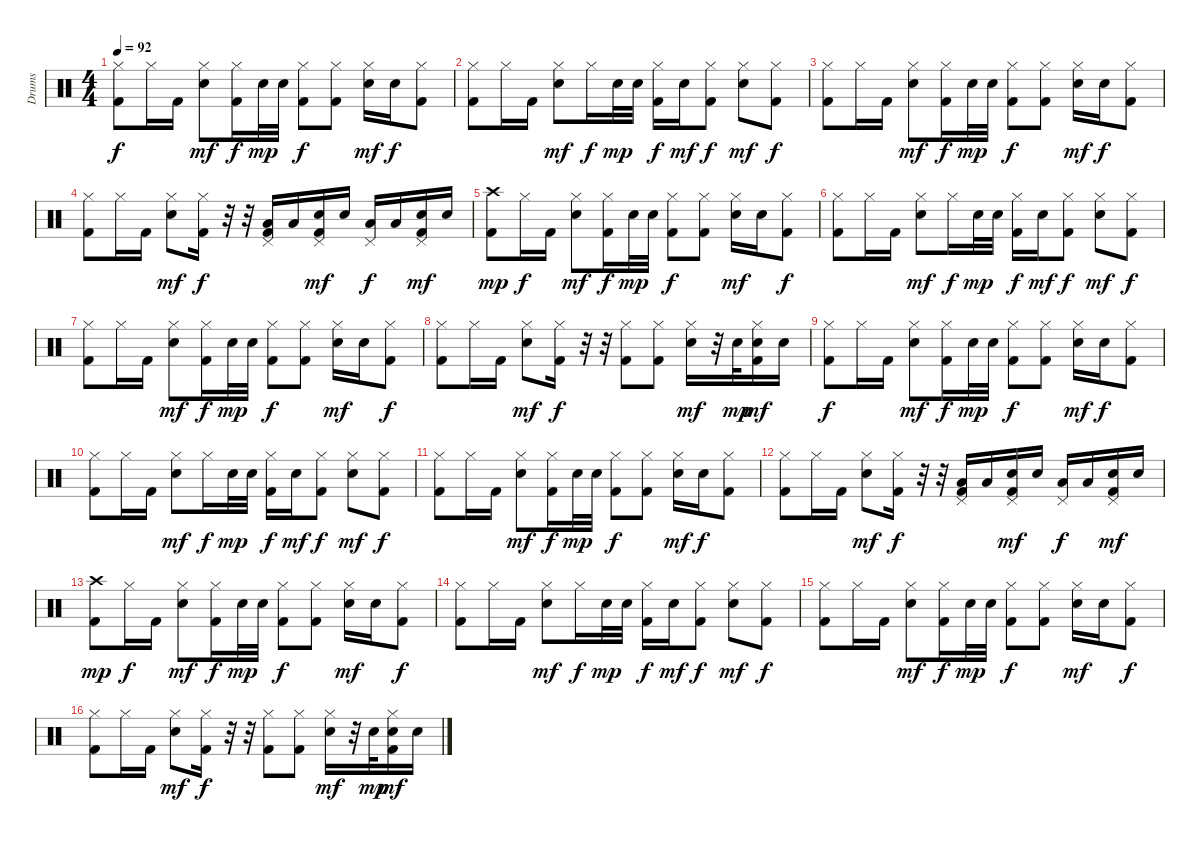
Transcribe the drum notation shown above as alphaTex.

\track ("Drums" "Drums") {instrument percussion}
\staff {score}
\articulation defaults
\ts (4 4)
\tempo 92
\clef neutral
\ks c
("Hi-Hat (closed)" "Kick (hit) 2").8{dy f} "Hi-Hat (closed)".16 "Kick (hit) 2".16 ("Hi-Hat (closed)" "Snare (hit) 2").8{dy mf} ("Hi-Hat (closed)" "Kick (hit) 2").16{dy f} "Snare (hit) 2".32{dy mp} "Snare (hit) 2".32 ("Hi-Hat (closed)" "Kick (hit) 2").8{dy f} ("Hi-Hat (closed)" "Kick (hit) 2").8 ("Hi-Hat (closed)" "Snare (hit) 2").16{dy mf} "Snare (hit) 2".16{dy f} ("Hi-Hat (closed)" "Kick (hit) 2").8 |
("Hi-Hat (closed)" "Kick (hit) 2").8 "Hi-Hat (closed)".16 "Kick (hit) 2".16 ("Hi-Hat (closed)" "Snare (hit) 2").8{dy mf} "Hi-Hat (closed)".16{dy f} "Snare (hit) 2".32{dy mp} "Snare (hit) 2".32 ("Hi-Hat (closed)" "Kick (hit) 2").16{dy f} "Snare (hit) 2".16{dy mf} ("Hi-Hat (closed)" "Kick (hit) 2").8{dy f} ("Hi-Hat (closed)" "Snare (hit) 2").8{dy mf} ("Hi-Hat (closed)" "Kick (hit) 2").8{dy f} |
("Hi-Hat (closed)" "Kick (hit) 2").8 "Hi-Hat (closed)".16 "Kick (hit) 2".16 ("Hi-Hat (closed)" "Snare (hit) 2").8{dy mf} ("Hi-Hat (closed)" "Kick (hit) 2").16{dy f} "Snare (hit) 2".32{dy mp} "Snare (hit) 2".32 ("Hi-Hat (closed)" "Kick (hit) 2").8{dy f} ("Hi-Hat (closed)" "Kick (hit) 2").8 ("Hi-Hat (closed)" "Snare (hit) 2").16{dy mf} "Snare (hit) 2".16{dy f} ("Hi-Hat (closed)" "Kick (hit) 2").8 |
("Hi-Hat (closed)" "Kick (hit) 2").8 "Hi-Hat (closed)".16 "Kick (hit) 2".16 ("Hi-Hat (closed)" "Snare (hit) 2").8{dy mf} ("Hi-Hat (closed)" "Kick (hit) 2").16{dy f} r.32 r.32 ("Pedal Hi-Hat (hit)" "Low Tom (hit)" "Kick (hit) 2").16 "Low Tom (hit)".16 ("Pedal Hi-Hat (hit)" "Snare (hit) 2" "Kick (hit) 2").16{dy mf} "Snare (hit) 2".16 ("Pedal Hi-Hat (hit)" "Low Tom (hit)").16{dy f} "Low Tom (hit)".16 ("Pedal Hi-Hat (hit)" "Snare (hit) 2" "Kick (hit) 2").16{dy mf} "Snare (hit) 2".16 |
("Crash high (hit)" "Kick (hit) 2").8{dy mp} "Hi-Hat (closed)".16{dy f} "Kick (hit) 2".16 ("Hi-Hat (closed)" "Snare (hit) 2").8{dy mf} ("Hi-Hat (closed)" "Kick (hit) 2").16{dy f} "Snare (hit) 2".32{dy mp} "Snare (hit) 2".32 ("Hi-Hat (closed)" "Kick (hit) 2").8{dy f} ("Hi-Hat (closed)" "Kick (hit) 2").8 ("Hi-Hat (closed)" "Snare (hit) 2").16{dy mf} "Snare (hit) 2".16 ("Hi-Hat (closed)" "Kick (hit) 2").8{dy f} |
("Hi-Hat (closed)" "Kick (hit) 2").8 "Hi-Hat (closed)".16 "Kick (hit) 2".16 ("Hi-Hat (closed)" "Snare (hit) 2").8{dy mf} "Hi-Hat (closed)".16{dy f} "Snare (hit) 2".32{dy mp} "Snare (hit) 2".32 ("Hi-Hat (closed)" "Kick (hit) 2").16{dy f} "Snare (hit) 2".16{dy mf} ("Hi-Hat (closed)" "Kick (hit) 2").8{dy f} ("Hi-Hat (closed)" "Snare (hit) 2").8{dy mf} ("Hi-Hat (closed)" "Kick (hit) 2").8{dy f} |
("Hi-Hat (closed)" "Kick (hit) 2").8 "Hi-Hat (closed)".16 "Kick (hit) 2".16 ("Hi-Hat (closed)" "Snare (hit) 2").8{dy mf} ("Hi-Hat (closed)" "Kick (hit) 2").16{dy f} "Snare (hit) 2".32{dy mp} "Snare (hit) 2".32 ("Hi-Hat (closed)" "Kick (hit) 2").8{dy f} ("Hi-Hat (closed)" "Kick (hit) 2").8 ("Hi-Hat (closed)" "Snare (hit) 2").16{dy mf} "Snare (hit) 2".16 ("Hi-Hat (closed)" "Kick (hit) 2").8{dy f} |
("Hi-Hat (closed)" "Kick (hit) 2").8 "Hi-Hat (closed)".16 "Kick (hit) 2".16 ("Hi-Hat (closed)" "Snare (hit) 2").8{dy mf} ("Hi-Hat (closed)" "Kick (hit) 2").16{dy f} r.32 r.32 ("Hi-Hat (closed)" "Kick (hit) 2").8 ("Hi-Hat (closed)" "Kick (hit) 2").8 ("Hi-Hat (closed)" "Snare (hit) 2").16{dy mf} r.32 "Snare (hit) 2".32{dy mp} ("Hi-Hat (closed)" "Snare (hit) 2" "Kick (hit) 2").16{dy mf} "Snare (hit) 2".16 |
("Hi-Hat (closed)" "Kick (hit) 2").8{dy f} "Hi-Hat (closed)".16 "Kick (hit) 2".16 ("Hi-Hat (closed)" "Snare (hit) 2").8{dy mf} ("Hi-Hat (closed)" "Kick (hit) 2").16{dy f} "Snare (hit) 2".32{dy mp} "Snare (hit) 2".32 ("Hi-Hat (closed)" "Kick (hit) 2").8{dy f} ("Hi-Hat (closed)" "Kick (hit) 2").8 ("Hi-Hat (closed)" "Snare (hit) 2").16{dy mf} "Snare (hit) 2".16{dy f} ("Hi-Hat (closed)" "Kick (hit) 2").8 |
("Hi-Hat (closed)" "Kick (hit) 2").8 "Hi-Hat (closed)".16 "Kick (hit) 2".16 ("Hi-Hat (closed)" "Snare (hit) 2").8{dy mf} "Hi-Hat (closed)".16{dy f} "Snare (hit) 2".32{dy mp} "Snare (hit) 2".32 ("Hi-Hat (closed)" "Kick (hit) 2").16{dy f} "Snare (hit) 2".16{dy mf} ("Hi-Hat (closed)" "Kick (hit) 2").8{dy f} ("Hi-Hat (closed)" "Snare (hit) 2").8{dy mf} ("Hi-Hat (closed)" "Kick (hit) 2").8{dy f} |
("Hi-Hat (closed)" "Kick (hit) 2").8 "Hi-Hat (closed)".16 "Kick (hit) 2".16 ("Hi-Hat (closed)" "Snare (hit) 2").8{dy mf} ("Hi-Hat (closed)" "Kick (hit) 2").16{dy f} "Snare (hit) 2".32{dy mp} "Snare (hit) 2".32 ("Hi-Hat (closed)" "Kick (hit) 2").8{dy f} ("Hi-Hat (closed)" "Kick (hit) 2").8 ("Hi-Hat (closed)" "Snare (hit) 2").16{dy mf} "Snare (hit) 2".16{dy f} ("Hi-Hat (closed)" "Kick (hit) 2").8 |
("Hi-Hat (closed)" "Kick (hit) 2").8 "Hi-Hat (closed)".16 "Kick (hit) 2".16 ("Hi-Hat (closed)" "Snare (hit) 2").8{dy mf} ("Hi-Hat (closed)" "Kick (hit) 2").16{dy f} r.32 r.32 ("Pedal Hi-Hat (hit)" "Low Tom (hit)" "Kick (hit) 2").16 "Low Tom (hit)".16 ("Pedal Hi-Hat (hit)" "Snare (hit) 2" "Kick (hit) 2").16{dy mf} "Snare (hit) 2".16 ("Pedal Hi-Hat (hit)" "Low Tom (hit)").16{dy f} "Low Tom (hit)".16 ("Pedal Hi-Hat (hit)" "Snare (hit) 2" "Kick (hit) 2").16{dy mf} "Snare (hit) 2".16 |
("Crash high (hit)" "Kick (hit) 2").8{dy mp} "Hi-Hat (closed)".16{dy f} "Kick (hit) 2".16 ("Hi-Hat (closed)" "Snare (hit) 2").8{dy mf} ("Hi-Hat (closed)" "Kick (hit) 2").16{dy f} "Snare (hit) 2".32{dy mp} "Snare (hit) 2".32 ("Hi-Hat (closed)" "Kick (hit) 2").8{dy f} ("Hi-Hat (closed)" "Kick (hit) 2").8 ("Hi-Hat (closed)" "Snare (hit) 2").16{dy mf} "Snare (hit) 2".16 ("Hi-Hat (closed)" "Kick (hit) 2").8{dy f} |
("Hi-Hat (closed)" "Kick (hit) 2").8 "Hi-Hat (closed)".16 "Kick (hit) 2".16 ("Hi-Hat (closed)" "Snare (hit) 2").8{dy mf} "Hi-Hat (closed)".16{dy f} "Snare (hit) 2".32{dy mp} "Snare (hit) 2".32 ("Hi-Hat (closed)" "Kick (hit) 2").16{dy f} "Snare (hit) 2".16{dy mf} ("Hi-Hat (closed)" "Kick (hit) 2").8{dy f} ("Hi-Hat (closed)" "Snare (hit) 2").8{dy mf} ("Hi-Hat (closed)" "Kick (hit) 2").8{dy f} |
("Hi-Hat (closed)" "Kick (hit) 2").8 "Hi-Hat (closed)".16 "Kick (hit) 2".16 ("Hi-Hat (closed)" "Snare (hit) 2").8{dy mf} ("Hi-Hat (closed)" "Kick (hit) 2").16{dy f} "Snare (hit) 2".32{dy mp} "Snare (hit) 2".32 ("Hi-Hat (closed)" "Kick (hit) 2").8{dy f} ("Hi-Hat (closed)" "Kick (hit) 2").8 ("Hi-Hat (closed)" "Snare (hit) 2").16{dy mf} "Snare (hit) 2".16 ("Hi-Hat (closed)" "Kick (hit) 2").8{dy f} |
("Hi-Hat (closed)" "Kick (hit) 2").8 "Hi-Hat (closed)".16 "Kick (hit) 2".16 ("Hi-Hat (closed)" "Snare (hit) 2").8{dy mf} ("Hi-Hat (closed)" "Kick (hit) 2").16{dy f} r.32 r.32 ("Hi-Hat (closed)" "Kick (hit) 2").8 ("Hi-Hat (closed)" "Kick (hit) 2").8 ("Hi-Hat (closed)" "Snare (hit) 2").16{dy mf} r.32 "Snare (hit) 2".32{dy mp} ("Hi-Hat (closed)" "Snare (hit) 2" "Kick (hit) 2").16{dy mf} "Snare (hit) 2".16
